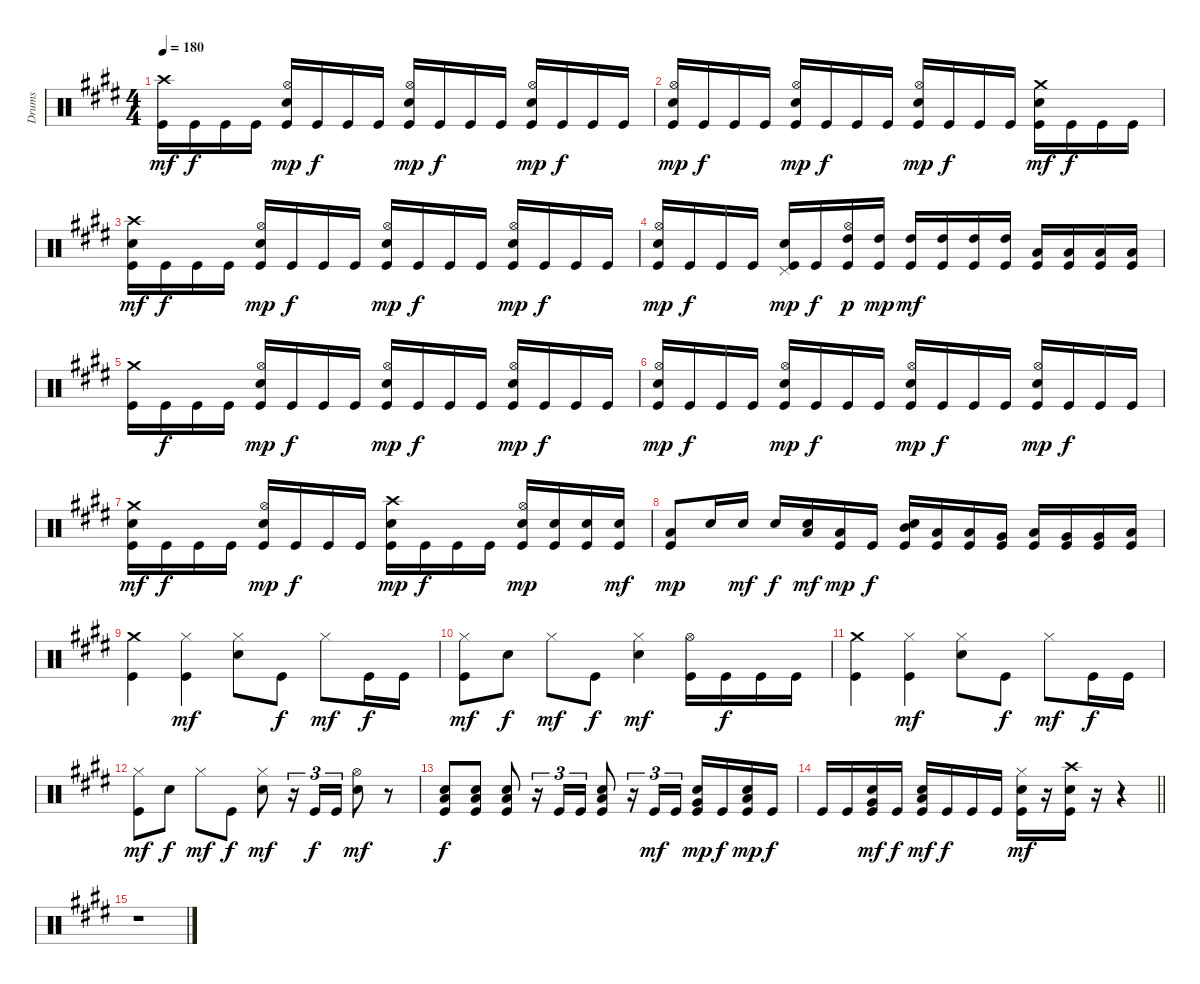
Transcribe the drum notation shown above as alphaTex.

\track ("Drums" "Drums") {instrument percussion}
\staff {score}
\articulation defaults
\ts (4 4)
\tempo 180
\clef neutral
\ks c#minor
("Crash high (hit)" "Kick (hit)").16{dy mf} "Kick (hit)".16{dy f} "Kick (hit)".16 "Kick (hit)".16 ("Hi-Hat (open)" "Snare (hit) 2" "Kick (hit)").16{dy mp} "Kick (hit)".16{dy f} "Kick (hit)".16 "Kick (hit)".16 ("Hi-Hat (open)" "Snare (hit) 2" "Kick (hit)").16{dy mp} "Kick (hit)".16{dy f} "Kick (hit)".16 "Kick (hit)".16 ("Hi-Hat (open)" "Snare (hit) 2" "Kick (hit)").16{dy mp} "Kick (hit)".16{dy f} "Kick (hit)".16 "Kick (hit)".16 |
("Hi-Hat (open)" "Snare (hit) 2" "Kick (hit)").16{dy mp} "Kick (hit)".16{dy f} "Kick (hit)".16 "Kick (hit)".16 ("Hi-Hat (open)" "Snare (hit) 2" "Kick (hit)").16{dy mp} "Kick (hit)".16{dy f} "Kick (hit)".16 "Kick (hit)".16 ("Hi-Hat (open)" "Snare (hit) 2" "Kick (hit)").16{dy mp} "Kick (hit)".16{dy f} "Kick (hit)".16 "Kick (hit)".16 ("Crash medium (hit)" "Snare (hit) 2" "Kick (hit)").16{dy mf} "Kick (hit)".16{dy f} "Kick (hit)".16 "Kick (hit)".16 |
("Crash high (hit)" "Snare (hit) 2" "Kick (hit)").16{dy mf} "Kick (hit)".16{dy f} "Kick (hit)".16 "Kick (hit)".16 ("Hi-Hat (open)" "Snare (hit) 2" "Kick (hit)").16{dy mp} "Kick (hit)".16{dy f} "Kick (hit)".16 "Kick (hit)".16 ("Hi-Hat (open)" "Snare (hit) 2" "Kick (hit)").16{dy mp} "Kick (hit)".16{dy f} "Kick (hit)".16 "Kick (hit)".16 ("Hi-Hat (open)" "Snare (hit) 2" "Kick (hit)").16{dy mp} "Kick (hit)".16{dy f} "Kick (hit)".16 "Kick (hit)".16 |
("Hi-Hat (open)" "Snare (hit) 2" "Kick (hit)").16{dy mp} "Kick (hit)".16{dy f} "Kick (hit)".16 "Kick (hit)".16 ("Pedal Hi-Hat (hit)" "Snare (hit) 2" "Kick (hit)").16{dy mp} "Kick (hit)".16{dy f} ("Hi-Hat (open)" "High Tom (hit)" "Kick (hit)").16{dy p} ("High Tom (hit)" "Kick (hit)").16{dy mp} ("High Tom (hit)" "Kick (hit)").16{dy mf} ("High Tom (hit)" "Kick (hit)").16 ("High Tom (hit)" "Kick (hit)").16 ("High Tom (hit)" "Kick (hit)").16 ("Low Tom (hit)" "Kick (hit)").16 ("Low Tom (hit)" "Kick (hit)").16 ("Low Tom (hit)" "Kick (hit)").16 ("Low Tom (hit)" "Kick (hit)").16 |
("Crash medium (hit)" "Kick (hit)").16 "Kick (hit)".16{dy f} "Kick (hit)".16 "Kick (hit)".16 ("Hi-Hat (open)" "Snare (hit) 2" "Kick (hit)").16{dy mp} "Kick (hit)".16{dy f} "Kick (hit)".16 "Kick (hit)".16 ("Hi-Hat (open)" "Snare (hit) 2" "Kick (hit)").16{dy mp} "Kick (hit)".16{dy f} "Kick (hit)".16 "Kick (hit)".16 ("Hi-Hat (open)" "Snare (hit) 2" "Kick (hit)").16{dy mp} "Kick (hit)".16{dy f} "Kick (hit)".16 "Kick (hit)".16 |
("Hi-Hat (open)" "Snare (hit) 2" "Kick (hit)").16{dy mp} "Kick (hit)".16{dy f} "Kick (hit)".16 "Kick (hit)".16 ("Hi-Hat (open)" "Snare (hit) 2" "Kick (hit)").16{dy mp} "Kick (hit)".16{dy f} "Kick (hit)".16 "Kick (hit)".16 ("Hi-Hat (open)" "Snare (hit) 2" "Kick (hit)").16{dy mp} "Kick (hit)".16{dy f} "Kick (hit)".16 "Kick (hit)".16 ("Hi-Hat (open)" "Snare (hit) 2" "Kick (hit)").16{dy mp} "Kick (hit)".16{dy f} "Kick (hit)".16 "Kick (hit)".16 |
("Crash medium (hit)" "Snare (hit) 2" "Kick (hit)").16{dy mf} "Kick (hit)".16{dy f} "Kick (hit)".16 "Kick (hit)".16 ("Hi-Hat (open)" "Snare (hit) 2" "Kick (hit)").16{dy mp} "Kick (hit)".16{dy f} "Kick (hit)".16 "Kick (hit)".16 ("Crash high (hit)" "Snare (hit) 2" "Kick (hit)").16{dy mp} "Kick (hit)".16{dy f} "Kick (hit)".16 "Kick (hit)".16 ("Hi-Hat (open)" "Snare (hit) 2" "Kick (hit)").16{dy mp} ("Snare (hit) 2" "Kick (hit)").16 ("Snare (hit) 2" "Kick (hit)").16 ("Snare (hit) 2" "Kick (hit)").16{dy mf} |
("Low Floor Tom (hit)" "Kick (hit)").8{dy mp} "Snare (hit) 2".16 "Snare (hit) 2".16{dy mf} "Snare (hit) 2".16{dy f} ("Low Tom (hit)" "Snare (hit) 2").16{dy mf} ("Low Floor Tom (hit)" "Kick (hit)").16{dy mp} "Kick (hit)".16{dy f} ("Mid Tom (hit)" "Snare (hit) 2" "Kick (hit)").16 ("Low Tom (hit)" "Kick (hit)").16 ("Low Tom (hit)" "Kick (hit)").16 ("Very Low Tom (hit)" "Kick (hit)").16 ("Low Tom (hit)" "Kick (hit)").16 ("Very Low Tom (hit)" "Kick (hit)").16 ("Very Low Tom (hit)" "Kick (hit)").16 ("Low Floor Tom (hit)" "Kick (hit)").16 |
("Crash medium (hit)" "Kick (hit)").4 ("Hi-Hat (closed)" "Kick (hit)").4{dy mf} ("Hi-Hat (closed)" "Snare (hit) 2").8 "Kick (hit)".8{dy f} "Hi-Hat (closed)".8{dy mf} "Kick (hit)".16{dy f} "Kick (hit)".16 |
("Hi-Hat (closed)" "Kick (hit)").8{dy mf} "Snare (hit) 2".8{dy f} "Hi-Hat (closed)".8{dy mf} "Kick (hit)".8{dy f} ("Hi-Hat (closed)" "Snare (hit) 2").4{dy mf} ("Hi-Hat (open)" "Kick (hit)").16 "Kick (hit)".16{dy f} "Kick (hit)".16 "Kick (hit)".16 |
("Crash medium (hit)" "Kick (hit)").4 ("Hi-Hat (closed)" "Kick (hit)").4{dy mf} ("Hi-Hat (closed)" "Snare (hit) 2").8 "Kick (hit)".8{dy f} "Hi-Hat (closed)".8{dy mf} "Kick (hit)".16{dy f} "Kick (hit)".16 |
("Hi-Hat (closed)" "Kick (hit)").8{dy mf} "Snare (hit) 2".8{dy f} "Hi-Hat (closed)".8{dy mf} "Kick (hit)".8{dy f} ("Hi-Hat (closed)" "Snare (hit) 2").8{dy mf} r.16{tu (3 2)} "Kick (hit)".16{tu (3 2) dy f} "Kick (hit)".16{tu (3 2)} ("Hi-Hat (open)" "Snare (hit) 2").8{dy mf} r.8 |
("Low Floor Tom (hit)" "Snare (hit) 2" "Kick (hit)").8{dy f} ("Low Floor Tom (hit)" "Snare (hit) 2" "Kick (hit)").8 ("Low Floor Tom (hit)" "Snare (hit) 2" "Kick (hit)").8 r.16{tu (3 2)} "Kick (hit)".16{tu (3 2)} "Kick (hit)".16{tu (3 2)} ("Low Floor Tom (hit)" "Snare (hit) 2" "Kick (hit)").8 r.16{tu (3 2)} "Kick (hit)".16{tu (3 2) dy mf} "Kick (hit)".16{tu (3 2)} ("Very Low Tom (hit)" "Snare (hit) 2" "Kick (hit)").16{dy mp} "Kick (hit)".16{dy f} ("Low Floor Tom (hit)" "Snare (hit) 2" "Kick (hit)").16{dy mp} "Kick (hit)".16{dy f} |
\barLineRight lightlight "Kick (hit)".16 "Kick (hit)".16
("Very Low Tom (hit)" "Snare (hit) 2" "Kick (hit)").16{dy mf} "Kick (hit)".16{dy f} ("Low Floor Tom (hit)" "Snare (hit) 2" "Kick (hit)").16{dy mf} "Kick (hit)".16{dy f} "Kick (hit)".16 "Kick (hit)".16 ("Hi-Hat (closed)" "Snare (hit) 2" "Kick (hit)").16{dy mf} r.16 ("Crash high (hit)" "Snare (hit) 2" "Kick (hit)").16 r.16 r.4 |
r.1
